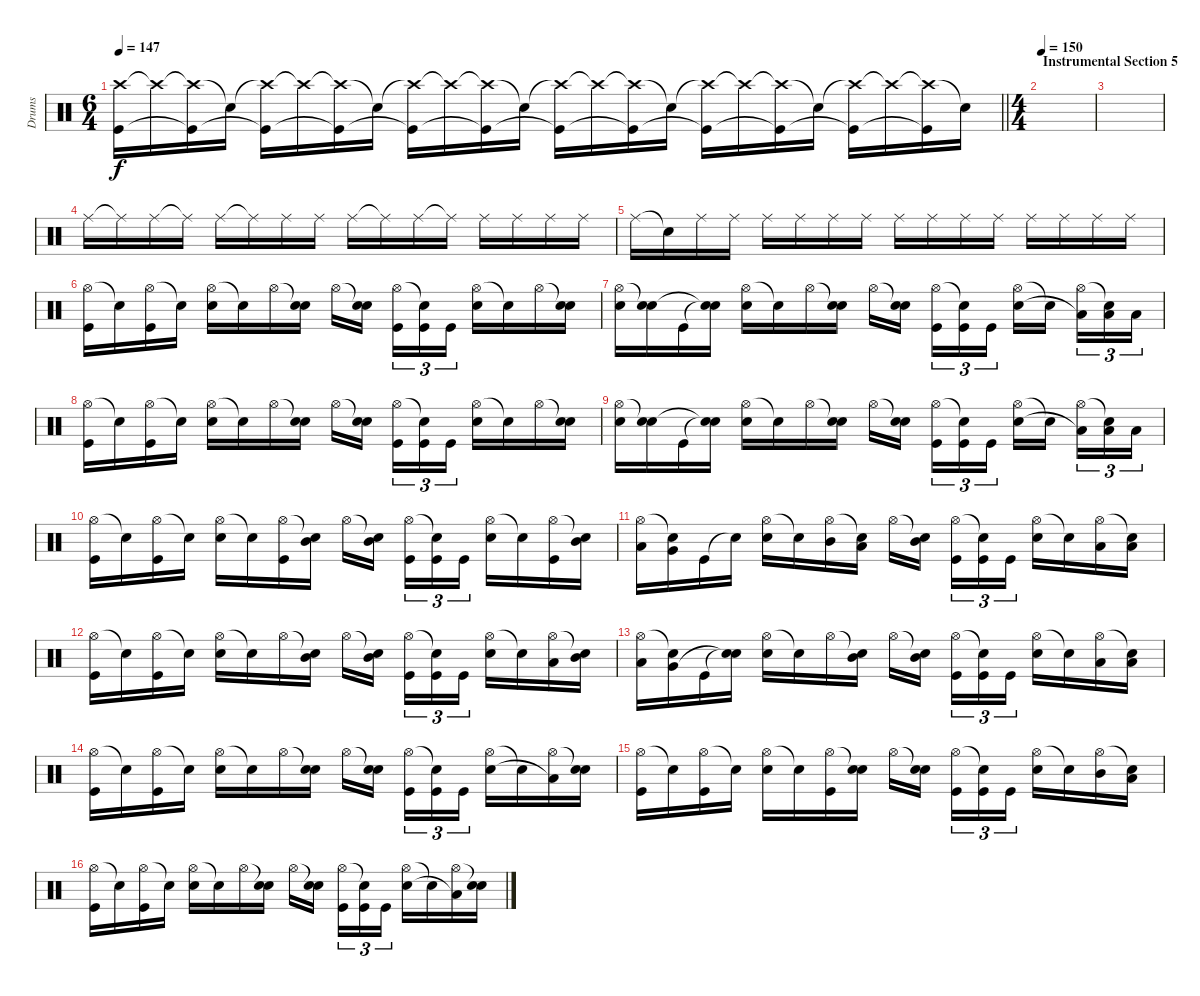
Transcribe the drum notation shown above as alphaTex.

\track ("Drums" "Drums") {instrument percussion}
\staff {score}
\articulation defaults
\ts (6 4)
\tempo 147
\clef neutral
\barLineRight lightlight
\ks c
("Crash high (hit)"{t} "Kick (hit)"{t}).16{dy f} "Crash high (hit)"{t}.16 ("Crash high (hit)"{t} "Kick (hit)"{t}).16 "Snare (hit)"{t}.16 ("Crash high (hit)"{t} "Kick (hit)"{t}).16 "Crash high (hit)"{t}.16 ("Crash high (hit)"{t} "Kick (hit)"{t}).16 "Snare (hit)"{t}.16 ("Crash high (hit)"{t} "Kick (hit)"{t}).16 "Crash high (hit)"{t}.16 ("Crash high (hit)"{t} "Kick (hit)"{t}).16 "Snare (hit)"{t}.16 ("Crash high (hit)"{t} "Kick (hit)"{t}).16 "Crash high (hit)"{t}.16 ("Crash high (hit)"{t} "Kick (hit)"{t}).16 "Snare (hit)"{t}.16 ("Crash high (hit)"{t} "Kick (hit)"{t}).16 "Crash high (hit)"{t}.16 ("Crash high (hit)"{t} "Kick (hit)"{t}).16 "Snare (hit)"{t}.16 ("Crash high (hit)"{t} "Kick (hit)"{t}).16 "Crash high (hit)"{t}.16 ("Crash high (hit)"{t} "Kick (hit)"{t}).16 "Snare (hit)"{t}.16 |
\ts (4 4)
\section ("" "Instrumental Section 5")
\tempo 150
|
|
"Ride (middle)".16 "Ride (middle)"{t}.16 "Ride (middle)".16 "Ride (middle)"{t}.16 "Ride (middle)".16 "Ride (middle)"{t}.16 "Ride (middle)".16 "Ride (middle)".16 "Ride (middle)".16 "Ride (middle)"{t}.16 "Ride (middle)".16 "Ride (middle)"{t}.16 "Ride (middle)".16 "Ride (middle)".16 "Ride (middle)".16 "Ride (middle)".16 |
"Ride (middle)".16 "Snare (hit)"{t}.16 "Ride (middle)".16 "Ride (middle)".16 "Ride (middle)".16 "Ride (middle)".16 "Ride (middle)".16 "Ride (middle)".16 "Ride (middle)".16 "Ride (middle)".16 "Ride (middle)".16 "Ride (middle)".16 "Ride (middle)".16 "Ride (middle)".16 "Ride (middle)".16 "Ride (middle)".16 |
("Hi-Hat (open)" "Kick (hit)").16 "Snare (hit)"{t}.16 ("Hi-Hat (open)" "Kick (hit)").16 "Snare (hit)"{t}.16 ("Hi-Hat (open)" "Electric Snare (hit)").16 "Snare (hit)"{t}.16 "Hi-Hat (open)".16 ("Snare (hit)"{t} "Electric Snare (hit)").16 "Hi-Hat (open)".16 ("Snare (hit)"{t} "Electric Snare (hit)").16 ("Hi-Hat (open)" "Kick (hit)").16{tu (3 2)} ("Snare (hit)"{t} "Kick (hit)").16{tu (3 2)} "Kick (hit)".16{tu (3 2)} ("Hi-Hat (open)" "Electric Snare (hit)").16 "Snare (hit)"{t}.16 "Hi-Hat (open)".16 ("Snare (hit)"{t} "Electric Snare (hit)").16 |
("Hi-Hat (open)" "Electric Snare (hit)").16 ("Snare (hit)"{t} "Electric Snare (hit)").16 "Kick (hit)".16 ("Snare (hit)"{t} "Snare (hit)"{t}).16 ("Hi-Hat (open)" "Electric Snare (hit)").16 "Snare (hit)"{t}.16 "Hi-Hat (open)".16 ("Snare (hit)"{t} "Electric Snare (hit)").16 "Hi-Hat (open)".16 ("Snare (hit)"{t} "Electric Snare (hit)").16 ("Hi-Hat (open)" "Kick (hit)").16{tu (3 2)} ("Snare (hit)"{t} "Kick (hit)").16{tu (3 2)} "Kick (hit)".16{tu (3 2)} ("Hi-Hat (open)" "Electric Snare (hit)").16 "Snare (hit)"{t}.16 ("Hi-Hat (open)" "Low Tom (hit)"{t}).16{tu (3 2)} ("Snare (hit)"{t} "Low Tom (hit)").16{tu (3 2)} "Low Tom (hit)".16{tu (3 2)} |
("Hi-Hat (open)" "Kick (hit)").16 "Snare (hit)"{t}.16 ("Hi-Hat (open)" "Kick (hit)").16 "Snare (hit)"{t}.16 ("Hi-Hat (open)" "Electric Snare (hit)").16 "Snare (hit)"{t}.16 "Hi-Hat (open)".16 ("Snare (hit)"{t} "Electric Snare (hit)").16 "Hi-Hat (open)".16 ("Snare (hit)"{t} "Electric Snare (hit)").16 ("Hi-Hat (open)" "Kick (hit)").16{tu (3 2)} ("Snare (hit)"{t} "Kick (hit)").16{tu (3 2)} "Kick (hit)".16{tu (3 2)} ("Hi-Hat (open)" "Electric Snare (hit)").16 "Snare (hit)"{t}.16 "Hi-Hat (open)".16 ("Snare (hit)"{t} "Electric Snare (hit)").16 |
("Hi-Hat (open)" "Electric Snare (hit)").16 ("Snare (hit)"{t} "Electric Snare (hit)").16 "Kick (hit)".16 ("Snare (hit)"{t} "Snare (hit)"{t}).16 ("Hi-Hat (open)" "Electric Snare (hit)").16 "Snare (hit)"{t}.16 "Hi-Hat (open)".16 ("Snare (hit)"{t} "Electric Snare (hit)").16 "Hi-Hat (open)".16 ("Snare (hit)"{t} "Electric Snare (hit)").16 ("Hi-Hat (open)" "Kick (hit)").16{tu (3 2)} ("Snare (hit)"{t} "Kick (hit)").16{tu (3 2)} "Kick (hit)".16{tu (3 2)} ("Hi-Hat (open)" "Electric Snare (hit)").16 "Snare (hit)"{t}.16 ("Hi-Hat (open)" "Low Tom (hit)"{t}).16{tu (3 2)} ("Snare (hit)"{t} "Low Tom (hit)").16{tu (3 2)} "Low Tom (hit)".16{tu (3 2)} |
("Hi-Hat (open)" "Kick (hit)").16 "Snare (hit)"{t}.16 ("Hi-Hat (open)" "Kick (hit)").16 "Snare (hit)"{t}.16 ("Hi-Hat (open)" "Electric Snare (hit)").16 "Snare (hit)"{t}.16 ("Hi-Hat (open)" "Kick (hit)").16 ("Snare (hit)"{t} "Mid Tom (hit)").16 "Hi-Hat (open)".16 ("Snare (hit)"{t} "Mid Tom (hit)").16 ("Hi-Hat (open)" "Kick (hit)").16{tu (3 2)} ("Snare (hit)"{t} "Kick (hit)").16{tu (3 2)} "Kick (hit)".16{tu (3 2)} ("Hi-Hat (open)" "Electric Snare (hit)").16 "Snare (hit)"{t}.16 ("Hi-Hat (open)" "Kick (hit)").16 ("Snare (hit)"{t} "Mid Tom (hit)").16 |
("Hi-Hat (open)" "Low Tom (hit)").16 ("Snare (hit)"{t} "Very Low Tom (hit)").16 "Kick (hit)".16 "Snare (hit)"{t}.16 ("Hi-Hat (open)" "Electric Snare (hit)").16 "Snare (hit)"{t}.16 ("Hi-Hat (open)" "Mid Tom (hit)").16 ("Snare (hit)"{t} "Low Tom (hit)").16 "Hi-Hat (open)".16 ("Snare (hit)"{t} "Mid Tom (hit)").16 ("Hi-Hat (open)" "Kick (hit)").16{tu (3 2)} ("Snare (hit)"{t} "Kick (hit)").16{tu (3 2)} "Kick (hit)".16{tu (3 2)} ("Hi-Hat (open)" "Electric Snare (hit)").16 "Snare (hit)"{t}.16 ("Hi-Hat (open)" "Low Tom (hit)").16 ("Snare (hit)"{t} "Low Tom (hit)").16 |
("Hi-Hat (open)" "Kick (hit)").16 "Snare (hit)"{t}.16 ("Hi-Hat (open)" "Kick (hit)").16 "Snare (hit)"{t}.16 ("Hi-Hat (open)" "Electric Snare (hit)").16 "Snare (hit)"{t}.16 "Hi-Hat (open)".16 ("Snare (hit)"{t} "Mid Tom (hit)").16 "Hi-Hat (open)".16 ("Snare (hit)"{t} "Mid Tom (hit)").16 ("Hi-Hat (open)" "Kick (hit)").16{tu (3 2)} ("Snare (hit)"{t} "Kick (hit)").16{tu (3 2)} "Kick (hit)".16{tu (3 2)} ("Hi-Hat (open)" "Electric Snare (hit)").16 "Snare (hit)"{t}.16 ("Hi-Hat (open)" "Low Tom (hit)").16 ("Snare (hit)"{t} "Mid Tom (hit)").16 |
("Hi-Hat (open)" "Low Tom (hit)").16 ("Snare (hit)"{t} "Very Low Tom (hit)").16 "Kick (hit)".16 ("Snare (hit)"{t} "Snare (hit)"{t}).16 ("Hi-Hat (open)" "Electric Snare (hit)").16 "Snare (hit)"{t}.16 "Hi-Hat (open)".16 ("Snare (hit)"{t} "Mid Tom (hit)").16 "Hi-Hat (open)".16 ("Snare (hit)"{t} "Mid Tom (hit)").16 ("Hi-Hat (open)" "Kick (hit)").16{tu (3 2)} ("Snare (hit)"{t} "Kick (hit)").16{tu (3 2)} "Kick (hit)".16{tu (3 2)} ("Hi-Hat (open)" "Electric Snare (hit)").16 "Snare (hit)"{t}.16 ("Hi-Hat (open)" "Low Tom (hit)").16 ("Snare (hit)"{t} "Low Tom (hit)").16 |
("Hi-Hat (open)" "Kick (hit)").16 "Snare (hit)"{t}.16 ("Hi-Hat (open)" "Kick (hit)").16 "Snare (hit)"{t}.16 ("Hi-Hat (open)" "Electric Snare (hit)").16 "Snare (hit)"{t}.16 "Hi-Hat (open)".16 ("Snare (hit)"{t} "Electric Snare (hit)").16 "Hi-Hat (open)".16 ("Snare (hit)"{t} "Electric Snare (hit)").16 ("Hi-Hat (open)" "Kick (hit)").16{tu (3 2)} ("Snare (hit)"{t} "Kick (hit)").16{tu (3 2)} "Kick (hit)".16{tu (3 2)} ("Hi-Hat (open)" "Electric Snare (hit)").16 "Snare (hit)"{t}.16 ("Hi-Hat (open)" "Low Tom (hit)"{t}).16 ("Snare (hit)"{t} "Electric Snare (hit)").16 |
("Hi-Hat (open)" "Kick (hit)").16 "Snare (hit)"{t}.16 ("Hi-Hat (open)" "Kick (hit)").16 "Snare (hit)"{t}.16 ("Hi-Hat (open)" "Electric Snare (hit)").16 "Snare (hit)"{t}.16 ("Hi-Hat (open)" "Kick (hit)").16 ("Snare (hit)"{t} "Electric Snare (hit)").16 "Hi-Hat (open)".16 ("Snare (hit)"{t} "Electric Snare (hit)").16 ("Hi-Hat (open)" "Kick (hit)").16{tu (3 2)} ("Snare (hit)"{t} "Kick (hit)").16{tu (3 2)} "Kick (hit)".16{tu (3 2)} ("Hi-Hat (open)" "Electric Snare (hit)").16 "Snare (hit)"{t}.16 ("Hi-Hat (open)" "Mid Tom (hit)").16 ("Snare (hit)"{t} "Low Tom (hit)").16 |
("Hi-Hat (open)" "Kick (hit)").16 "Snare (hit)"{t}.16 ("Hi-Hat (open)" "Kick (hit)").16 "Snare (hit)"{t}.16 ("Hi-Hat (open)" "Electric Snare (hit)").16 "Snare (hit)"{t}.16 "Hi-Hat (open)".16 ("Snare (hit)"{t} "Electric Snare (hit)").16 "Hi-Hat (open)".16 ("Snare (hit)"{t} "Electric Snare (hit)").16 ("Hi-Hat (open)" "Kick (hit)").16{tu (3 2)} ("Snare (hit)"{t} "Kick (hit)").16{tu (3 2)} "Kick (hit)".16{tu (3 2)} ("Hi-Hat (open)" "Electric Snare (hit)").16 "Snare (hit)"{t}.16 ("Hi-Hat (open)" "Low Tom (hit)"{t}).16 ("Snare (hit)"{t} "Electric Snare (hit)").16
